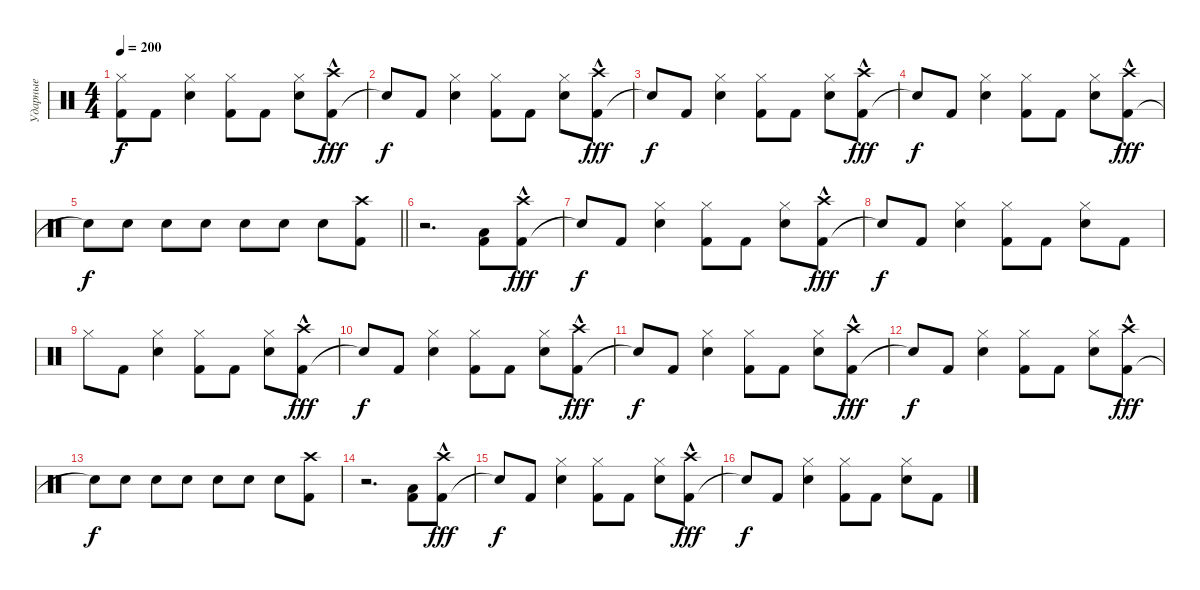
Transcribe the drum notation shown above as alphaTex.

\track ("Ударные" "Ударные") {instrument percussion}
\staff {score}
\articulation defaults
\ts (4 4)
\tempo 200
\clef neutral
\ks c
("Kick (hit) 2" "Hi-Hat (closed)").8{dy f} "Kick (hit) 2".8 ("Snare (hit) 2" "Hi-Hat (closed)").4 ("Kick (hit) 2" "Hi-Hat (closed)").8 "Kick (hit) 2".8 ("Snare (hit) 2" "Hi-Hat (closed)").8 ("Kick (hit) 2" "Crash high (hit)"{hac}).8{dy fff} |
"Snare (hit)"{t}.8{dy f} "Kick (hit) 2".8 ("Snare (hit) 2" "Hi-Hat (closed)").4 ("Kick (hit) 2" "Hi-Hat (closed)").8 "Kick (hit) 2".8 ("Snare (hit) 2" "Hi-Hat (closed)").8 ("Kick (hit) 2" "Crash high (hit)"{hac}).8{dy fff} |
"Snare (hit)"{t}.8{dy f} "Kick (hit) 2".8 ("Snare (hit) 2" "Hi-Hat (closed)").4 ("Kick (hit) 2" "Hi-Hat (closed)").8 "Kick (hit) 2".8 ("Snare (hit) 2" "Hi-Hat (closed)").8 ("Kick (hit) 2" "Crash high (hit)"{hac}).8{dy fff} |
"Snare (hit)"{t}.8{dy f} "Kick (hit) 2".8 ("Snare (hit) 2" "Hi-Hat (closed)").4 ("Kick (hit) 2" "Hi-Hat (closed)").8 "Kick (hit) 2".8 ("Snare (hit) 2" "Hi-Hat (closed)").8 ("Kick (hit) 2" "Crash high (hit)"{hac}).8{dy fff} |
\barLineRight lightlight "Snare (hit)"{t}.8{dy f} "Snare (hit) 2".8 "Snare (hit) 2".8 "Snare (hit) 2".8 "Snare (hit) 2".8 "Snare (hit) 2".8 "Snare (hit) 2".8
("Kick (hit) 2" "Crash high (hit)").8 |
r.2{d} ("Kick (hit) 2" "Low Floor Tom (hit)").8 ("Kick (hit) 2" "Crash high (hit)"{hac}).8{dy fff} |
"Snare (hit)"{t}.8{dy f} "Kick (hit) 2".8 ("Snare (hit) 2" "Hi-Hat (closed)").4 ("Kick (hit) 2" "Hi-Hat (closed)").8 "Kick (hit) 2".8 ("Snare (hit) 2" "Hi-Hat (closed)").8 ("Kick (hit) 2" "Crash high (hit)"{hac}).8{dy fff} |
"Snare (hit)"{t}.8{dy f} "Kick (hit) 2".8 ("Snare (hit) 2" "Hi-Hat (closed)").4 ("Kick (hit) 2" "Hi-Hat (closed)").8 "Kick (hit) 2".8 ("Snare (hit) 2" "Hi-Hat (closed)").8 "Kick (hit) 2".8 |
"Hi-Hat (closed)".8 "Kick (hit) 2".8 ("Snare (hit) 2" "Hi-Hat (closed)").4 ("Kick (hit) 2" "Hi-Hat (closed)").8 "Kick (hit) 2".8 ("Snare (hit) 2" "Hi-Hat (closed)").8 ("Kick (hit) 2" "Crash high (hit)"{hac}).8{dy fff} |
"Snare (hit)"{t}.8{dy f} "Kick (hit) 2".8 ("Snare (hit) 2" "Hi-Hat (closed)").4 ("Kick (hit) 2" "Hi-Hat (closed)").8 "Kick (hit) 2".8 ("Snare (hit) 2" "Hi-Hat (closed)").8 ("Kick (hit) 2" "Crash high (hit)"{hac}).8{dy fff} |
"Snare (hit)"{t}.8{dy f} "Kick (hit) 2".8 ("Snare (hit) 2" "Hi-Hat (closed)").4 ("Kick (hit) 2" "Hi-Hat (closed)").8 "Kick (hit) 2".8 ("Snare (hit) 2" "Hi-Hat (closed)").8 ("Kick (hit) 2" "Crash high (hit)"{hac}).8{dy fff} |
"Snare (hit)"{t}.8{dy f} "Kick (hit) 2".8 ("Snare (hit) 2" "Hi-Hat (closed)").4 ("Kick (hit) 2" "Hi-Hat (closed)").8 "Kick (hit) 2".8 ("Snare (hit) 2" "Hi-Hat (closed)").8 ("Kick (hit) 2" "Crash high (hit)"{hac}).8{dy fff} |
"Snare (hit)"{t}.8{dy f} "Snare (hit) 2".8 "Snare (hit) 2".8 "Snare (hit) 2".8 "Snare (hit) 2".8 "Snare (hit) 2".8 "Snare (hit) 2".8 ("Kick (hit) 2" "Crash high (hit)").8 |
r.2{d} ("Kick (hit) 2" "Low Floor Tom (hit)").8 ("Kick (hit) 2" "Crash high (hit)"{hac}).8{dy fff} |
"Snare (hit)"{t}.8{dy f} "Kick (hit) 2".8 ("Snare (hit) 2" "Hi-Hat (closed)").4 ("Kick (hit) 2" "Hi-Hat (closed)").8 "Kick (hit) 2".8 ("Snare (hit) 2" "Hi-Hat (closed)").8 ("Kick (hit) 2" "Crash high (hit)"{hac}).8{dy fff} |
"Snare (hit)"{t}.8{dy f} "Kick (hit) 2".8 ("Snare (hit) 2" "Hi-Hat (closed)").4 ("Kick (hit) 2" "Hi-Hat (closed)").8 "Kick (hit) 2".8 ("Snare (hit) 2" "Hi-Hat (closed)").8 "Kick (hit) 2".8
